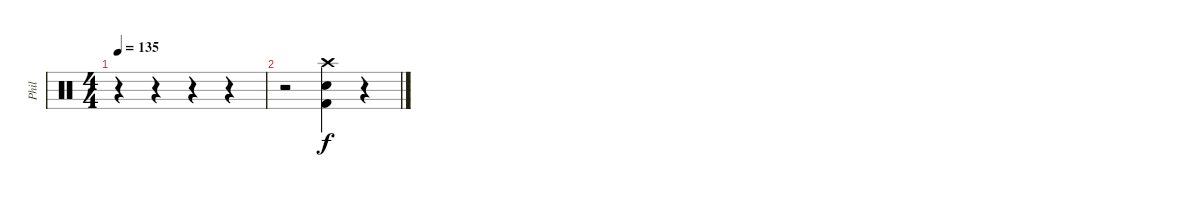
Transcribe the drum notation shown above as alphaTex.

\track ("Phil" "Phil") {instrument percussion}
\staff {score}
\articulation defaults
\ts (4 4)
\tempo 135
\clef neutral
\ks c
r.4{dy f} r.4 r.4 r.4 |
r.2{volume 16} ("Crash high (hit)" "Kick (hit) 2" "Snare (hit) 2").4 r.4
